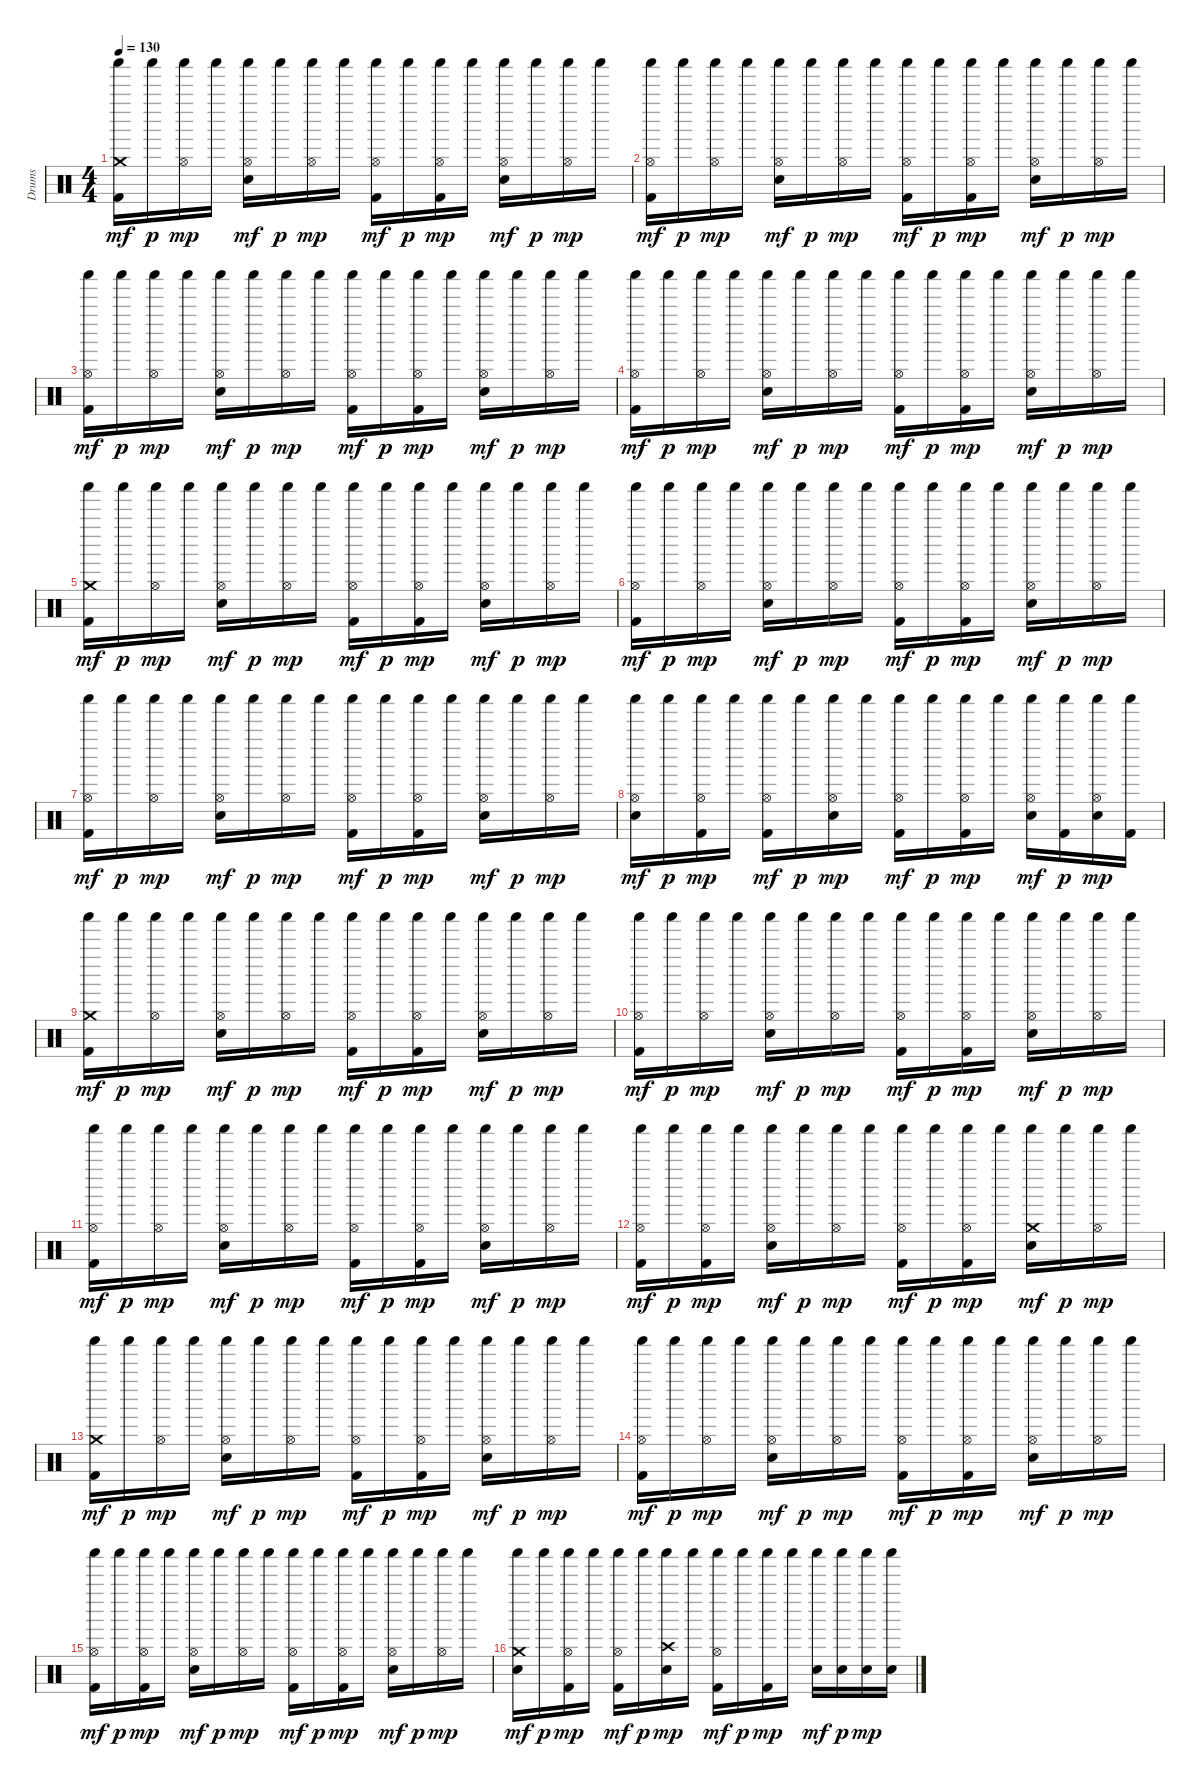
\track ("Drums" "Drums") {instrument percussion}
\staff {score}
\articulation defaults
\ts (4 4)
\tempo 130
\clef neutral
\ks c
("Kick (hit) 2" "Crash medium (hit)" "Shaker (hit)").16{dy mf} "Shaker (hit)".16{dy p} ("Hi-Hat (open)" "Shaker (hit)").16{dy mp} "Shaker (hit)".16 ("Snare (hit) 2" "Hi-Hat (open)" "Shaker (hit)").16{dy mf} "Shaker (hit)".16{dy p} ("Hi-Hat (open)" "Shaker (hit)").16{dy mp} "Shaker (hit)".16 ("Kick (hit) 2" "Hi-Hat (open)" "Shaker (hit)").16{dy mf} "Shaker (hit)".16{dy p} ("Kick (hit) 2" "Hi-Hat (open)" "Shaker (hit)").16{dy mp} "Shaker (hit)".16 ("Snare (hit) 2" "Hi-Hat (open)" "Shaker (hit)").16{dy mf} "Shaker (hit)".16{dy p} ("Hi-Hat (open)" "Shaker (hit)").16{dy mp} "Shaker (hit)".16 |
("Kick (hit) 2" "Hi-Hat (open)" "Shaker (hit)").16{dy mf} "Shaker (hit)".16{dy p} ("Hi-Hat (open)" "Shaker (hit)").16{dy mp} "Shaker (hit)".16 ("Snare (hit) 2" "Hi-Hat (open)" "Shaker (hit)").16{dy mf} "Shaker (hit)".16{dy p} ("Hi-Hat (open)" "Shaker (hit)").16{dy mp} "Shaker (hit)".16 ("Kick (hit) 2" "Hi-Hat (open)" "Shaker (hit)").16{dy mf} "Shaker (hit)".16{dy p} ("Kick (hit) 2" "Hi-Hat (open)" "Shaker (hit)").16{dy mp} "Shaker (hit)".16 ("Snare (hit) 2" "Hi-Hat (open)" "Shaker (hit)").16{dy mf} "Shaker (hit)".16{dy p} ("Hi-Hat (open)" "Shaker (hit)").16{dy mp} "Shaker (hit)".16 |
("Kick (hit) 2" "Hi-Hat (open)" "Shaker (hit)").16{dy mf} "Shaker (hit)".16{dy p} ("Hi-Hat (open)" "Shaker (hit)").16{dy mp} "Shaker (hit)".16 ("Snare (hit) 2" "Hi-Hat (open)" "Shaker (hit)").16{dy mf} "Shaker (hit)".16{dy p} ("Hi-Hat (open)" "Shaker (hit)").16{dy mp} "Shaker (hit)".16 ("Kick (hit) 2" "Hi-Hat (open)" "Shaker (hit)").16{dy mf} "Shaker (hit)".16{dy p} ("Kick (hit) 2" "Hi-Hat (open)" "Shaker (hit)").16{dy mp} "Shaker (hit)".16 ("Snare (hit) 2" "Hi-Hat (open)" "Shaker (hit)").16{dy mf} "Shaker (hit)".16{dy p} ("Hi-Hat (open)" "Shaker (hit)").16{dy mp} "Shaker (hit)".16 |
("Kick (hit) 2" "Hi-Hat (open)" "Shaker (hit)").16{dy mf} "Shaker (hit)".16{dy p} ("Hi-Hat (open)" "Shaker (hit)").16{dy mp} "Shaker (hit)".16 ("Snare (hit) 2" "Hi-Hat (open)" "Shaker (hit)").16{dy mf} "Shaker (hit)".16{dy p} ("Hi-Hat (open)" "Shaker (hit)").16{dy mp} "Shaker (hit)".16 ("Kick (hit) 2" "Hi-Hat (open)" "Shaker (hit)").16{dy mf} "Shaker (hit)".16{dy p} ("Kick (hit) 2" "Hi-Hat (open)" "Shaker (hit)").16{dy mp} "Shaker (hit)".16 ("Snare (hit) 2" "Hi-Hat (open)" "Shaker (hit)").16{dy mf} "Shaker (hit)".16{dy p} ("Hi-Hat (open)" "Shaker (hit)").16{dy mp} "Shaker (hit)".16 |
("Kick (hit) 2" "Crash medium (hit)" "Shaker (hit)").16{dy mf} "Shaker (hit)".16{dy p} ("Hi-Hat (open)" "Shaker (hit)").16{dy mp} "Shaker (hit)".16 ("Snare (hit) 2" "Hi-Hat (open)" "Shaker (hit)").16{dy mf} "Shaker (hit)".16{dy p} ("Hi-Hat (open)" "Shaker (hit)").16{dy mp} "Shaker (hit)".16 ("Kick (hit) 2" "Hi-Hat (open)" "Shaker (hit)").16{dy mf} "Shaker (hit)".16{dy p} ("Kick (hit) 2" "Hi-Hat (open)" "Shaker (hit)").16{dy mp} "Shaker (hit)".16 ("Snare (hit) 2" "Hi-Hat (open)" "Shaker (hit)").16{dy mf} "Shaker (hit)".16{dy p} ("Hi-Hat (open)" "Shaker (hit)").16{dy mp} "Shaker (hit)".16 |
("Kick (hit) 2" "Hi-Hat (open)" "Shaker (hit)").16{dy mf} "Shaker (hit)".16{dy p} ("Hi-Hat (open)" "Shaker (hit)").16{dy mp} "Shaker (hit)".16 ("Snare (hit) 2" "Hi-Hat (open)" "Shaker (hit)").16{dy mf} "Shaker (hit)".16{dy p} ("Hi-Hat (open)" "Shaker (hit)").16{dy mp} "Shaker (hit)".16 ("Kick (hit) 2" "Hi-Hat (open)" "Shaker (hit)").16{dy mf} "Shaker (hit)".16{dy p} ("Kick (hit) 2" "Hi-Hat (open)" "Shaker (hit)").16{dy mp} "Shaker (hit)".16 ("Snare (hit) 2" "Hi-Hat (open)" "Shaker (hit)").16{dy mf} "Shaker (hit)".16{dy p} ("Hi-Hat (open)" "Shaker (hit)").16{dy mp} "Shaker (hit)".16 |
("Kick (hit) 2" "Hi-Hat (open)" "Shaker (hit)").16{dy mf} "Shaker (hit)".16{dy p} ("Hi-Hat (open)" "Shaker (hit)").16{dy mp} "Shaker (hit)".16 ("Snare (hit) 2" "Hi-Hat (open)" "Shaker (hit)").16{dy mf} "Shaker (hit)".16{dy p} ("Hi-Hat (open)" "Shaker (hit)").16{dy mp} "Shaker (hit)".16 ("Kick (hit) 2" "Hi-Hat (open)" "Shaker (hit)").16{dy mf} "Shaker (hit)".16{dy p} ("Kick (hit) 2" "Hi-Hat (open)" "Shaker (hit)").16{dy mp} "Shaker (hit)".16 ("Snare (hit) 2" "Hi-Hat (open)" "Shaker (hit)").16{dy mf} "Shaker (hit)".16{dy p} ("Hi-Hat (open)" "Shaker (hit)").16{dy mp} "Shaker (hit)".16 |
("Snare (hit) 2" "Hi-Hat (open)" "Shaker (hit)").16{dy mf} "Shaker (hit)".16{dy p} ("Kick (hit) 2" "Hi-Hat (open)" "Shaker (hit)").16{dy mp} "Shaker (hit)".16 ("Kick (hit) 2" "Hi-Hat (open)" "Shaker (hit)").16{dy mf} "Shaker (hit)".16{dy p} ("Snare (hit) 2" "Hi-Hat (open)" "Shaker (hit)").16{dy mp} "Shaker (hit)".16 ("Kick (hit) 2" "Hi-Hat (open)" "Shaker (hit)").16{dy mf} "Shaker (hit)".16{dy p} ("Kick (hit) 2" "Hi-Hat (open)" "Shaker (hit)").16{dy mp} "Shaker (hit)".16 ("Snare (hit) 2" "Hi-Hat (open)" "Shaker (hit)").16{dy mf} ("Kick (hit) 2" "Shaker (hit)").16{dy p} ("Snare (hit) 2" "Hi-Hat (open)" "Shaker (hit)").16{dy mp} ("Kick (hit) 2" "Shaker (hit)").16 |
("Kick (hit) 2" "Crash medium (hit)" "Shaker (hit)").16{dy mf} "Shaker (hit)".16{dy p} ("Hi-Hat (open)" "Shaker (hit)").16{dy mp} "Shaker (hit)".16 ("Snare (hit) 2" "Hi-Hat (open)" "Shaker (hit)").16{dy mf} "Shaker (hit)".16{dy p} ("Hi-Hat (open)" "Shaker (hit)").16{dy mp} "Shaker (hit)".16 ("Kick (hit) 2" "Hi-Hat (open)" "Shaker (hit)").16{dy mf} "Shaker (hit)".16{dy p} ("Kick (hit) 2" "Hi-Hat (open)" "Shaker (hit)").16{dy mp} "Shaker (hit)".16 ("Snare (hit) 2" "Hi-Hat (open)" "Shaker (hit)").16{dy mf} "Shaker (hit)".16{dy p} ("Hi-Hat (open)" "Shaker (hit)").16{dy mp} "Shaker (hit)".16 |
("Kick (hit) 2" "Hi-Hat (open)" "Shaker (hit)").16{dy mf} "Shaker (hit)".16{dy p} ("Hi-Hat (open)" "Shaker (hit)").16{dy mp} "Shaker (hit)".16 ("Snare (hit) 2" "Hi-Hat (open)" "Shaker (hit)").16{dy mf} "Shaker (hit)".16{dy p} ("Hi-Hat (open)" "Shaker (hit)").16{dy mp} "Shaker (hit)".16 ("Kick (hit) 2" "Hi-Hat (open)" "Shaker (hit)").16{dy mf} "Shaker (hit)".16{dy p} ("Kick (hit) 2" "Hi-Hat (open)" "Shaker (hit)").16{dy mp} "Shaker (hit)".16 ("Snare (hit) 2" "Hi-Hat (open)" "Shaker (hit)").16{dy mf} "Shaker (hit)".16{dy p} ("Hi-Hat (open)" "Shaker (hit)").16{dy mp} "Shaker (hit)".16 |
("Kick (hit) 2" "Hi-Hat (open)" "Shaker (hit)").16{dy mf} "Shaker (hit)".16{dy p} ("Hi-Hat (open)" "Shaker (hit)").16{dy mp} "Shaker (hit)".16 ("Snare (hit) 2" "Hi-Hat (open)" "Shaker (hit)").16{dy mf} "Shaker (hit)".16{dy p} ("Hi-Hat (open)" "Shaker (hit)").16{dy mp} "Shaker (hit)".16 ("Kick (hit) 2" "Hi-Hat (open)" "Shaker (hit)").16{dy mf} "Shaker (hit)".16{dy p} ("Kick (hit) 2" "Hi-Hat (open)" "Shaker (hit)").16{dy mp} "Shaker (hit)".16 ("Snare (hit) 2" "Hi-Hat (open)" "Shaker (hit)").16{dy mf} "Shaker (hit)".16{dy p} ("Hi-Hat (open)" "Shaker (hit)").16{dy mp} "Shaker (hit)".16 |
("Kick (hit) 2" "Hi-Hat (open)" "Shaker (hit)").16{dy mf} "Shaker (hit)".16{dy p} ("Kick (hit) 2" "Hi-Hat (open)" "Shaker (hit)").16{dy mp} "Shaker (hit)".16 ("Snare (hit) 2" "Hi-Hat (open)" "Shaker (hit)").16{dy mf} "Shaker (hit)".16{dy p} ("Hi-Hat (open)" "Shaker (hit)").16{dy mp} "Shaker (hit)".16 ("Kick (hit) 2" "Hi-Hat (open)" "Shaker (hit)").16{dy mf} "Shaker (hit)".16{dy p} ("Kick (hit) 2" "Hi-Hat (open)" "Shaker (hit)").16{dy mp} "Shaker (hit)".16 ("Snare (hit) 2" "Crash medium (hit)" "Shaker (hit)").16{dy mf} "Shaker (hit)".16{dy p} ("Hi-Hat (open)" "Shaker (hit)").16{dy mp} "Shaker (hit)".16 |
("Kick (hit) 2" "Crash medium (hit)" "Shaker (hit)").16{dy mf} "Shaker (hit)".16{dy p} ("Hi-Hat (open)" "Shaker (hit)").16{dy mp} "Shaker (hit)".16 ("Snare (hit) 2" "Hi-Hat (open)" "Shaker (hit)").16{dy mf} "Shaker (hit)".16{dy p} ("Hi-Hat (open)" "Shaker (hit)").16{dy mp} "Shaker (hit)".16 ("Kick (hit) 2" "Hi-Hat (open)" "Shaker (hit)").16{dy mf} "Shaker (hit)".16{dy p} ("Kick (hit) 2" "Hi-Hat (open)" "Shaker (hit)").16{dy mp} "Shaker (hit)".16 ("Snare (hit) 2" "Hi-Hat (open)" "Shaker (hit)").16{dy mf} "Shaker (hit)".16{dy p} ("Hi-Hat (open)" "Shaker (hit)").16{dy mp} "Shaker (hit)".16 |
("Kick (hit) 2" "Hi-Hat (open)" "Shaker (hit)").16{dy mf} "Shaker (hit)".16{dy p} ("Hi-Hat (open)" "Shaker (hit)").16{dy mp} "Shaker (hit)".16 ("Snare (hit) 2" "Hi-Hat (open)" "Shaker (hit)").16{dy mf} "Shaker (hit)".16{dy p} ("Hi-Hat (open)" "Shaker (hit)").16{dy mp} "Shaker (hit)".16 ("Kick (hit) 2" "Hi-Hat (open)" "Shaker (hit)").16{dy mf} "Shaker (hit)".16{dy p} ("Kick (hit) 2" "Hi-Hat (open)" "Shaker (hit)").16{dy mp} "Shaker (hit)".16 ("Snare (hit) 2" "Hi-Hat (open)" "Shaker (hit)").16{dy mf} "Shaker (hit)".16{dy p} ("Hi-Hat (open)" "Shaker (hit)").16{dy mp} "Shaker (hit)".16 |
("Kick (hit) 2" "Hi-Hat (open)" "Shaker (hit)").16{dy mf} "Shaker (hit)".16{dy p} ("Kick (hit) 2" "Hi-Hat (open)" "Shaker (hit)").16{dy mp} "Shaker (hit)".16 ("Snare (hit) 2" "Hi-Hat (open)" "Shaker (hit)").16{dy mf} "Shaker (hit)".16{dy p} ("Hi-Hat (open)" "Shaker (hit)").16{dy mp} "Shaker (hit)".16 ("Kick (hit) 2" "Hi-Hat (open)" "Shaker (hit)").16{dy mf} "Shaker (hit)".16{dy p} ("Kick (hit) 2" "Hi-Hat (open)" "Shaker (hit)").16{dy mp} "Shaker (hit)".16 ("Snare (hit) 2" "Hi-Hat (open)" "Shaker (hit)").16{dy mf} "Shaker (hit)".16{dy p} ("Hi-Hat (open)" "Shaker (hit)").16{dy mp} "Shaker (hit)".16 |
("Snare (hit) 2" "Crash medium (hit)" "Shaker (hit)").16{dy mf} "Shaker (hit)".16{dy p} ("Kick (hit) 2" "Hi-Hat (open)" "Shaker (hit)").16{dy mp} "Shaker (hit)".16 ("Kick (hit) 2" "Hi-Hat (open)" "Shaker (hit)").16{dy mf} "Shaker (hit)".16{dy p} ("Snare (hit) 2" "Crash high (hit)" "Shaker (hit)").16{dy mp} "Shaker (hit)".16 ("Kick (hit) 2" "Hi-Hat (open)" "Shaker (hit)").16{dy mf} "Shaker (hit)".16{dy p} ("Kick (hit) 2" "Shaker (hit)").16{dy mp} "Shaker (hit)".16 ("Snare (hit) 2" "Shaker (hit)").16{dy mf} ("Snare (hit) 2" "Shaker (hit)").16{dy p} ("Snare (hit) 2" "Shaker (hit)").16{dy mp} ("Snare (hit) 2" "Shaker (hit)").16
